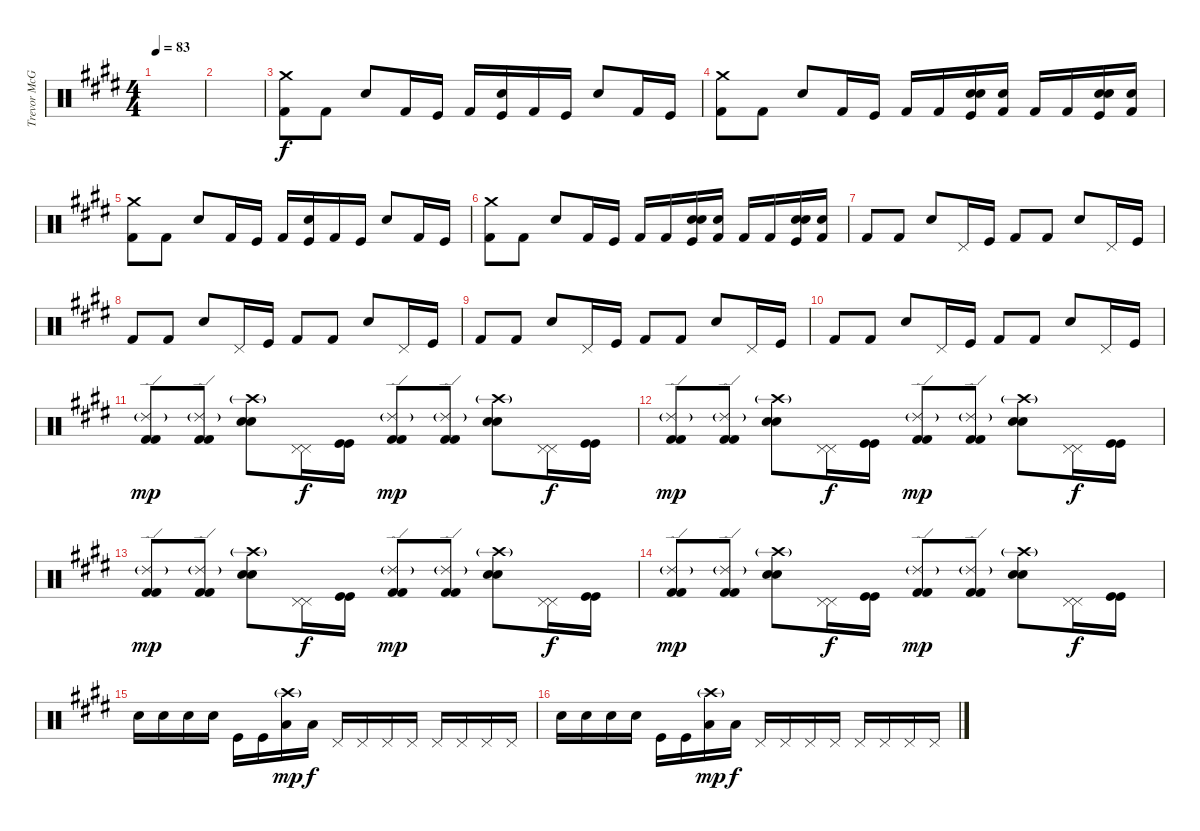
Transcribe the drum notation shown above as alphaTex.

\track ("Trevor McGregor - Drums" "Trevor McG") {instrument percussion}
\staff {score}
\articulation defaults
\ts (4 4)
\tempo 83
\clef neutral
\ks e
|
|
\ks c#minor
("Crash medium (hit)" "Kick (hit) 2").8 "Kick (hit) 2".8 "Electric Snare (hit)".8 "Kick (hit) 2".16 "Kick (hit)".16 "Kick (hit) 2".16 ("Electric Snare (hit)" "Kick (hit)").16 "Kick (hit) 2".16 "Kick (hit)".16 "Electric Snare (hit)".8 "Kick (hit) 2".16 "Kick (hit)".16 |
("Crash medium (hit)" "Kick (hit) 2").8 "Kick (hit) 2".8 "Electric Snare (hit)".8 "Kick (hit) 2".16 "Kick (hit)".16 "Kick (hit) 2".16 "Kick (hit) 2".16 ("Snare (hit) 2" "Electric Snare (hit)" "Kick (hit)").16 ("Snare (hit) 2" "Kick (hit) 2").16 "Kick (hit) 2".16 "Kick (hit) 2".16 ("Snare (hit) 2" "Electric Snare (hit)" "Kick (hit)").16 ("Snare (hit) 2" "Kick (hit) 2").16 |
("Crash medium (hit)" "Kick (hit) 2").8 "Kick (hit) 2".8 "Electric Snare (hit)".8 "Kick (hit) 2".16 "Kick (hit)".16 "Kick (hit) 2".16 ("Electric Snare (hit)" "Kick (hit)").16 "Kick (hit) 2".16 "Kick (hit)".16 "Electric Snare (hit)".8 "Kick (hit) 2".16 "Kick (hit)".16 |
("Crash medium (hit)" "Kick (hit) 2").8 "Kick (hit) 2".8 "Electric Snare (hit)".8 "Kick (hit) 2".16 "Kick (hit)".16 "Kick (hit) 2".16 "Kick (hit) 2".16 ("Snare (hit) 2" "Electric Snare (hit)" "Kick (hit)").16 ("Snare (hit) 2" "Kick (hit) 2").16 "Kick (hit) 2".16 "Kick (hit) 2".16 ("Snare (hit) 2" "Electric Snare (hit)" "Kick (hit)").16 ("Snare (hit) 2" "Kick (hit) 2").16 |
"Kick (hit) 2".8 "Kick (hit) 2".8 "Electric Snare (hit)".8 "Pedal Hi-Hat (hit)".16 "Kick (hit)".16 "Kick (hit) 2".8 "Kick (hit) 2".8 "Electric Snare (hit)".8 "Pedal Hi-Hat (hit)".16 "Kick (hit)".16 |
"Kick (hit) 2".8 "Kick (hit) 2".8 "Electric Snare (hit)".8 "Pedal Hi-Hat (hit)".16 "Kick (hit)".16 "Kick (hit) 2".8 "Kick (hit) 2".8 "Electric Snare (hit)".8 "Pedal Hi-Hat (hit)".16 "Kick (hit)".16 |
"Kick (hit) 2".8 "Kick (hit) 2".8 "Electric Snare (hit)".8 "Pedal Hi-Hat (hit)".16 "Kick (hit)".16 "Kick (hit) 2".8 "Kick (hit) 2".8 "Electric Snare (hit)".8 "Pedal Hi-Hat (hit)".16 "Kick (hit)".16 |
"Kick (hit) 2".8 "Kick (hit) 2".8 "Electric Snare (hit)".8 "Pedal Hi-Hat (hit)".16 "Kick (hit)".16 "Kick (hit) 2".8 "Kick (hit) 2".8 "Electric Snare (hit)".8 "Pedal Hi-Hat (hit)".16 "Kick (hit)".16 |
("Ride (edge) 2"{g} "Kick (hit) 2" "Kick (hit) 2").8{dy mp} ("Ride (edge) 2"{g} "Kick (hit) 2" "Kick (hit) 2").8 ("Crash high (hit)"{g} "Electric Snare (hit)" "Electric Snare (hit)").8 ("Pedal Hi-Hat (hit)" "Pedal Hi-Hat (hit)").16{dy f} ("Kick (hit)" "Kick (hit)").16 ("Ride (edge) 2"{g} "Kick (hit) 2" "Kick (hit) 2").8{dy mp} ("Ride (edge) 2"{g} "Kick (hit) 2" "Kick (hit) 2").8 ("Crash high (hit)"{g} "Electric Snare (hit)" "Electric Snare (hit)").8 ("Pedal Hi-Hat (hit)" "Pedal Hi-Hat (hit)").16{dy f} ("Kick (hit)" "Kick (hit)").16 |
("Ride (edge) 2"{g} "Kick (hit) 2" "Kick (hit) 2").8{dy mp} ("Ride (edge) 2"{g} "Kick (hit) 2" "Kick (hit) 2").8 ("Crash high (hit)"{g} "Electric Snare (hit)" "Electric Snare (hit)").8 ("Pedal Hi-Hat (hit)" "Pedal Hi-Hat (hit)").16{dy f} ("Kick (hit)" "Kick (hit)").16 ("Ride (edge) 2"{g} "Kick (hit) 2" "Kick (hit) 2").8{dy mp} ("Ride (edge) 2"{g} "Kick (hit) 2" "Kick (hit) 2").8 ("Crash high (hit)"{g} "Electric Snare (hit)" "Electric Snare (hit)").8 ("Pedal Hi-Hat (hit)" "Pedal Hi-Hat (hit)").16{dy f} ("Kick (hit)" "Kick (hit)").16 |
("Ride (edge) 2"{g} "Kick (hit) 2" "Kick (hit) 2").8{dy mp} ("Ride (edge) 2"{g} "Kick (hit) 2" "Kick (hit) 2").8 ("Crash high (hit)"{g} "Electric Snare (hit)" "Electric Snare (hit)").8 ("Pedal Hi-Hat (hit)" "Pedal Hi-Hat (hit)").16{dy f} ("Kick (hit)" "Kick (hit)").16 ("Ride (edge) 2"{g} "Kick (hit) 2" "Kick (hit) 2").8{dy mp} ("Ride (edge) 2"{g} "Kick (hit) 2" "Kick (hit) 2").8 ("Crash high (hit)"{g} "Electric Snare (hit)" "Electric Snare (hit)").8 ("Pedal Hi-Hat (hit)" "Pedal Hi-Hat (hit)").16{dy f} ("Kick (hit)" "Kick (hit)").16 |
("Ride (edge) 2"{g} "Kick (hit) 2" "Kick (hit) 2").8{dy mp} ("Ride (edge) 2"{g} "Kick (hit) 2" "Kick (hit) 2").8 ("Crash high (hit)"{g} "Electric Snare (hit)" "Electric Snare (hit)").8 ("Pedal Hi-Hat (hit)" "Pedal Hi-Hat (hit)").16{dy f} ("Kick (hit)" "Kick (hit)").16 ("Ride (edge) 2"{g} "Kick (hit) 2" "Kick (hit) 2").8{dy mp} ("Ride (edge) 2"{g} "Kick (hit) 2" "Kick (hit) 2").8 ("Crash high (hit)"{g} "Electric Snare (hit)" "Electric Snare (hit)").8 ("Pedal Hi-Hat (hit)" "Pedal Hi-Hat (hit)").16{dy f} ("Kick (hit)" "Kick (hit)").16 |
\ks e "Snare (hit) 2".16 "Snare (hit) 2".16 "Electric Snare (hit)".16 "Electric Snare (hit)".16 "Kick (hit)".16 "Kick (hit)".16
("Crash high (hit)"{g} "Low Tom (hit)").16{dy mp} "Low Tom (hit)".16{dy f} "Pedal Hi-Hat (hit)".16 "Pedal Hi-Hat (hit)".16 "Pedal Hi-Hat (hit)".16 "Pedal Hi-Hat (hit)".16 "Pedal Hi-Hat (hit)".16 "Pedal Hi-Hat (hit)".16 "Pedal Hi-Hat (hit)".16 "Pedal Hi-Hat (hit)".16 |
"Snare (hit) 2".16 "Snare (hit) 2".16 "Electric Snare (hit)".16 "Electric Snare (hit)".16 "Kick (hit)".16 "Kick (hit)".16 ("Crash high (hit)"{g} "Low Tom (hit)").16{dy mp} "Low Tom (hit)".16{dy f} "Pedal Hi-Hat (hit)".16 "Pedal Hi-Hat (hit)".16 "Pedal Hi-Hat (hit)".16 "Pedal Hi-Hat (hit)".16 "Pedal Hi-Hat (hit)".16 "Pedal Hi-Hat (hit)".16 "Pedal Hi-Hat (hit)".16 "Pedal Hi-Hat (hit)".16
